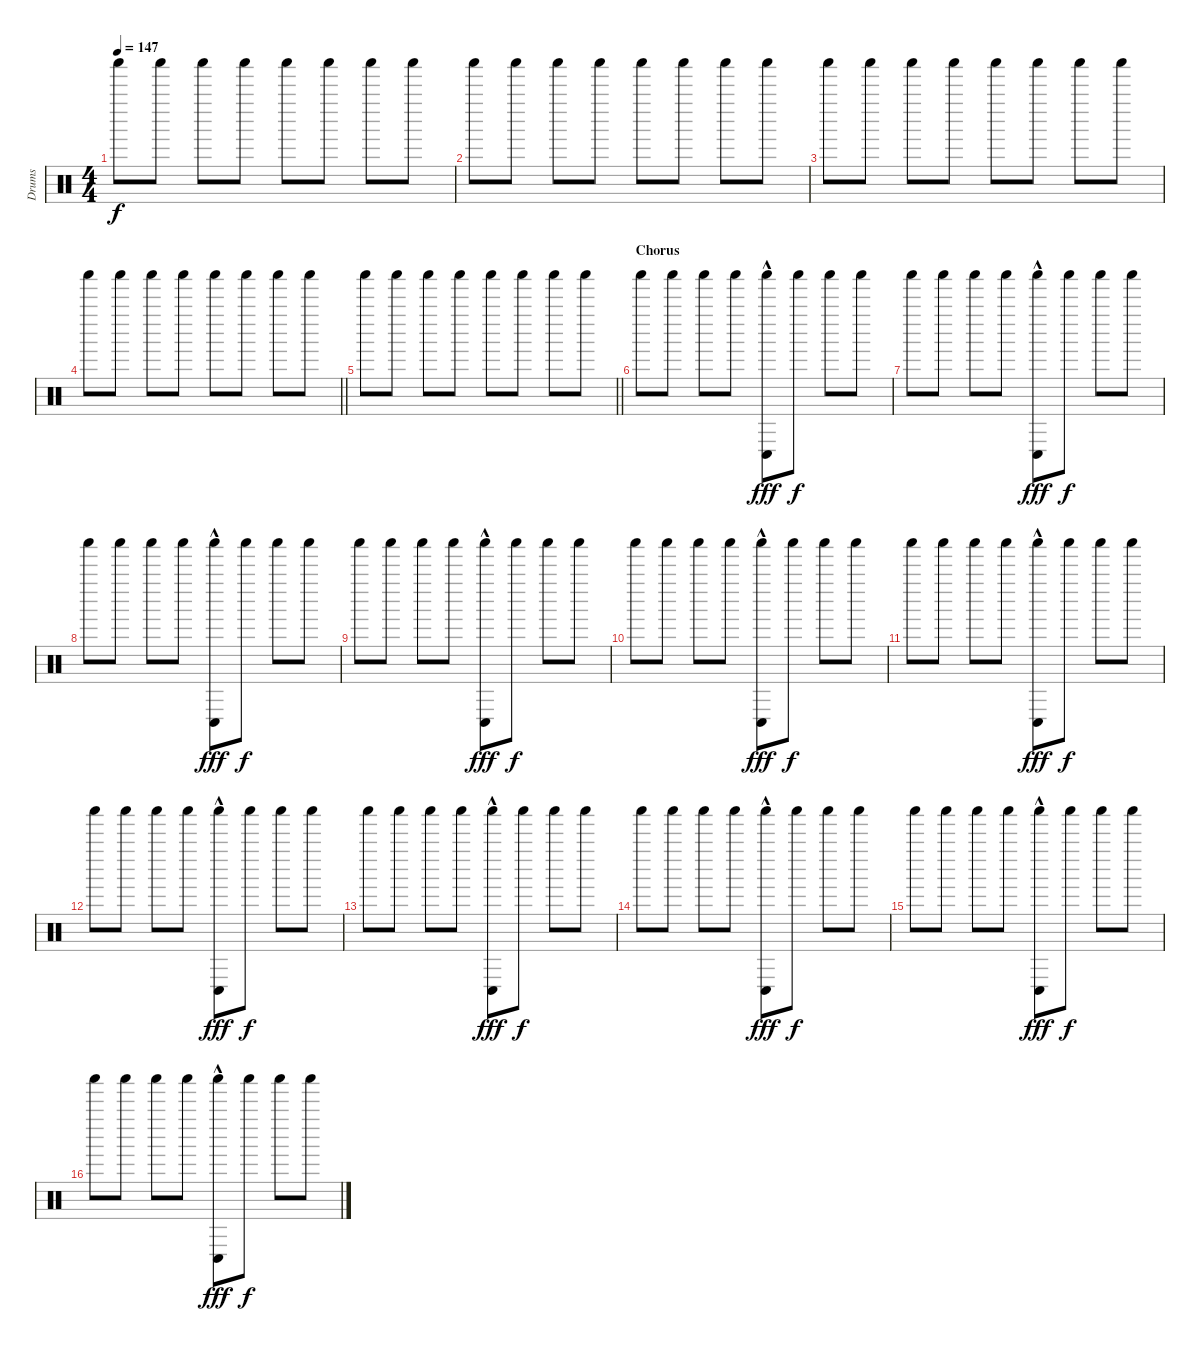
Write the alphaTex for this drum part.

\track ("Drums" "Drums") {instrument percussion}
\staff {score}
\articulation defaults
\ts (4 4)
\tempo 147
\clef neutral
\ks c "Shaker (hit)".8{dy f} "Shaker (hit)".8 "Shaker (hit)".8 "Shaker (hit)".8 "Shaker (hit)".8 "Shaker (hit)".8 "Shaker (hit)".8 "Shaker (hit)".8
|
"Shaker (hit)".8 "Shaker (hit)".8 "Shaker (hit)".8 "Shaker (hit)".8 "Shaker (hit)".8 "Shaker (hit)".8 "Shaker (hit)".8 "Shaker (hit)".8 |
"Shaker (hit)".8 "Shaker (hit)".8 "Shaker (hit)".8 "Shaker (hit)".8 "Shaker (hit)".8 "Shaker (hit)".8 "Shaker (hit)".8 "Shaker (hit)".8 |
\barLineRight lightlight "Shaker (hit)".8 "Shaker (hit)".8 "Shaker (hit)".8 "Shaker (hit)".8 "Shaker (hit)".8 "Shaker (hit)".8 "Shaker (hit)".8 "Shaker (hit)".8
|
\barLineRight lightlight "Shaker (hit)".8 "Shaker (hit)".8 "Shaker (hit)".8 "Shaker (hit)".8 "Shaker (hit)".8 "Shaker (hit)".8 "Shaker (hit)".8 "Shaker (hit)".8
|
\section ("" "Chorus")
"Shaker (hit)".8 "Shaker (hit)".8 "Shaker (hit)".8 "Shaker (hit)".8 ("Conga low (hit)"{hac} "Shaker (hit)").8{dy fff} "Shaker (hit)".8{dy f} "Shaker (hit)".8 "Shaker (hit)".8 |
"Shaker (hit)".8 "Shaker (hit)".8 "Shaker (hit)".8 "Shaker (hit)".8 ("Conga low (hit)"{hac} "Shaker (hit)").8{dy fff} "Shaker (hit)".8{dy f} "Shaker (hit)".8 "Shaker (hit)".8 |
"Shaker (hit)".8 "Shaker (hit)".8 "Shaker (hit)".8 "Shaker (hit)".8 ("Conga low (hit)"{hac} "Shaker (hit)").8{dy fff} "Shaker (hit)".8{dy f} "Shaker (hit)".8 "Shaker (hit)".8 |
"Shaker (hit)".8 "Shaker (hit)".8 "Shaker (hit)".8 "Shaker (hit)".8 ("Conga low (hit)"{hac} "Shaker (hit)").8{dy fff} "Shaker (hit)".8{dy f} "Shaker (hit)".8 "Shaker (hit)".8 |
"Shaker (hit)".8 "Shaker (hit)".8 "Shaker (hit)".8 "Shaker (hit)".8 ("Conga low (hit)"{hac} "Shaker (hit)").8{dy fff} "Shaker (hit)".8{dy f} "Shaker (hit)".8 "Shaker (hit)".8 |
"Shaker (hit)".8 "Shaker (hit)".8 "Shaker (hit)".8 "Shaker (hit)".8 ("Conga low (hit)"{hac} "Shaker (hit)").8{dy fff} "Shaker (hit)".8{dy f} "Shaker (hit)".8 "Shaker (hit)".8 |
"Shaker (hit)".8 "Shaker (hit)".8 "Shaker (hit)".8 "Shaker (hit)".8 ("Conga low (hit)"{hac} "Shaker (hit)").8{dy fff} "Shaker (hit)".8{dy f} "Shaker (hit)".8 "Shaker (hit)".8 |
"Shaker (hit)".8 "Shaker (hit)".8 "Shaker (hit)".8 "Shaker (hit)".8 ("Conga low (hit)"{hac} "Shaker (hit)").8{dy fff} "Shaker (hit)".8{dy f} "Shaker (hit)".8 "Shaker (hit)".8 |
"Shaker (hit)".8 "Shaker (hit)".8 "Shaker (hit)".8 "Shaker (hit)".8 ("Conga low (hit)"{hac} "Shaker (hit)").8{dy fff} "Shaker (hit)".8{dy f} "Shaker (hit)".8 "Shaker (hit)".8 |
"Shaker (hit)".8 "Shaker (hit)".8 "Shaker (hit)".8 "Shaker (hit)".8 ("Conga low (hit)"{hac} "Shaker (hit)").8{dy fff} "Shaker (hit)".8{dy f} "Shaker (hit)".8 "Shaker (hit)".8 |
"Shaker (hit)".8 "Shaker (hit)".8 "Shaker (hit)".8 "Shaker (hit)".8 ("Conga low (hit)"{hac} "Shaker (hit)").8{dy fff} "Shaker (hit)".8{dy f} "Shaker (hit)".8 "Shaker (hit)".8
